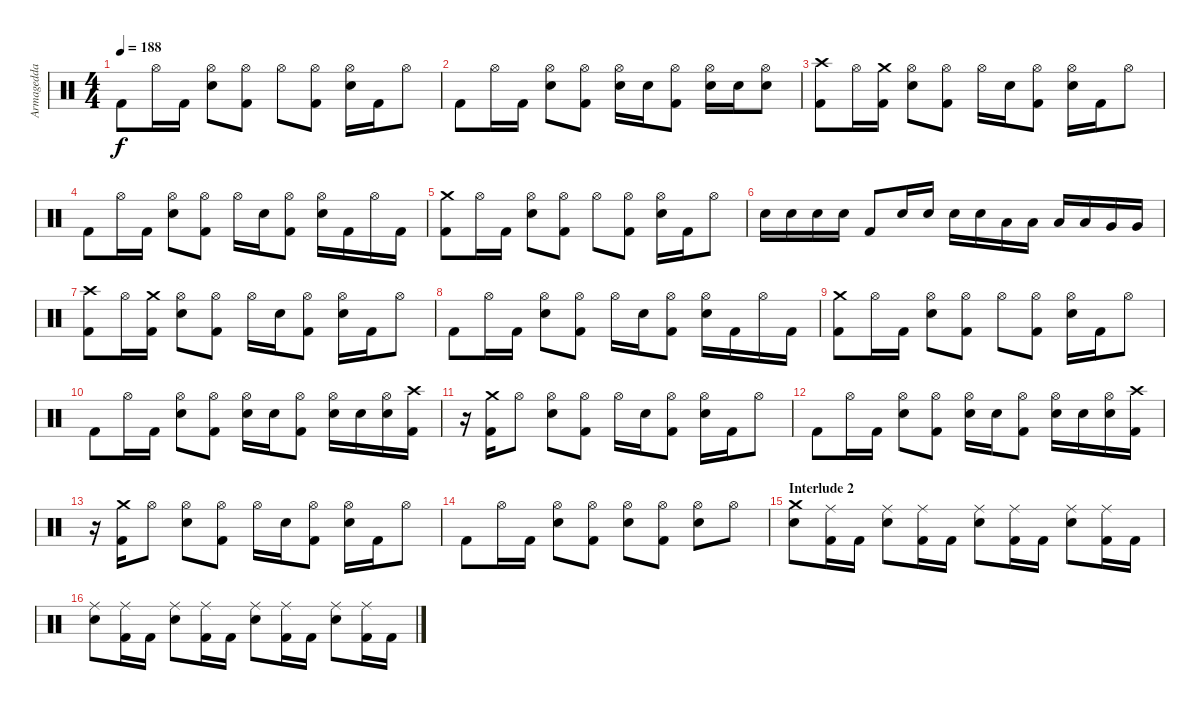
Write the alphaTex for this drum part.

\track ("Armagedda" "Armagedda") {instrument percussion}
\staff {score}
\articulation defaults
\ts (4 4)
\tempo 188
\clef neutral
\ks c "Kick (hit) 2".8{dy f} "Hi-Hat (open)".16 "Kick (hit) 2".16
("Hi-Hat (open)" "Electric Snare (hit)").8 ("Hi-Hat (open)" "Kick (hit) 2").8 "Hi-Hat (open)".8 ("Hi-Hat (open)" "Kick (hit) 2").8 ("Hi-Hat (open)" "Electric Snare (hit)").16 "Kick (hit) 2".16 "Hi-Hat (open)".8 |
"Kick (hit) 2".8 "Hi-Hat (open)".16 "Kick (hit) 2".16 ("Hi-Hat (open)" "Electric Snare (hit)").8 ("Hi-Hat (open)" "Kick (hit) 2").8 ("Hi-Hat (open)" "Electric Snare (hit)").16 "Electric Snare (hit)".16 ("Hi-Hat (open)" "Kick (hit) 2").8 ("Hi-Hat (open)" "Electric Snare (hit)").16 "Electric Snare (hit)".16 ("Hi-Hat (open)" "Electric Snare (hit)").8 |
("Crash high (hit)" "Kick (hit) 2").8 "Hi-Hat (open)".16 ("Crash medium (hit)" "Kick (hit) 2").16 ("Hi-Hat (open)" "Electric Snare (hit)").8 ("Hi-Hat (open)" "Kick (hit) 2").8 "Hi-Hat (open)".16 "Electric Snare (hit)".16 ("Hi-Hat (open)" "Kick (hit) 2").8 ("Hi-Hat (open)" "Electric Snare (hit)").16 "Kick (hit) 2".16 "Hi-Hat (open)".8 |
"Kick (hit) 2".8 "Hi-Hat (open)".16 "Kick (hit) 2".16 ("Hi-Hat (open)" "Electric Snare (hit)").8 ("Hi-Hat (open)" "Kick (hit) 2").8 "Hi-Hat (open)".16 "Electric Snare (hit)".16 ("Hi-Hat (open)" "Kick (hit) 2").8 ("Hi-Hat (open)" "Electric Snare (hit)").16 "Kick (hit) 2".16 "Hi-Hat (open)".16 "Kick (hit) 2".16 |
("Crash medium (hit)" "Kick (hit) 2").8 "Hi-Hat (open)".16 "Kick (hit) 2".16 ("Hi-Hat (open)" "Electric Snare (hit)").8 ("Hi-Hat (open)" "Kick (hit) 2").8 "Hi-Hat (open)".8 ("Hi-Hat (open)" "Kick (hit) 2").8 ("Hi-Hat (open)" "Electric Snare (hit)").16 "Kick (hit) 2".16 "Hi-Hat (open)".8 |
"Electric Snare (hit)".16 "Electric Snare (hit)".16 "Electric Snare (hit)".16 "Electric Snare (hit)".16 "Kick (hit) 2".8 "Electric Snare (hit)".16 "Electric Snare (hit)".16 "Electric Snare (hit)".16 "Electric Snare (hit)".16 "Low Tom (hit)".16 "Low Tom (hit)".16 "Low Tom (hit)".16 "Low Tom (hit)".16 "Very Low Tom (hit)".16 "Very Low Tom (hit)".16 |
("Crash high (hit)" "Kick (hit) 2").8 "Hi-Hat (open)".16 ("Crash medium (hit)" "Kick (hit) 2").16 ("Hi-Hat (open)" "Electric Snare (hit)").8 ("Hi-Hat (open)" "Kick (hit) 2").8 "Hi-Hat (open)".16 "Electric Snare (hit)".16 ("Hi-Hat (open)" "Kick (hit) 2").8 ("Hi-Hat (open)" "Electric Snare (hit)").16 "Kick (hit) 2".16 "Hi-Hat (open)".8 |
"Kick (hit) 2".8 "Hi-Hat (open)".16 "Kick (hit) 2".16 ("Hi-Hat (open)" "Electric Snare (hit)").8 ("Hi-Hat (open)" "Kick (hit) 2").8 "Hi-Hat (open)".16 "Electric Snare (hit)".16 ("Hi-Hat (open)" "Kick (hit) 2").8 ("Hi-Hat (open)" "Electric Snare (hit)").16 "Kick (hit) 2".16 "Hi-Hat (open)".16 "Kick (hit) 2".16 |
("Crash medium (hit)" "Kick (hit) 2").8 "Hi-Hat (open)".16 "Kick (hit) 2".16 ("Hi-Hat (open)" "Electric Snare (hit)").8 ("Hi-Hat (open)" "Kick (hit) 2").8 "Hi-Hat (open)".8 ("Hi-Hat (open)" "Kick (hit) 2").8 ("Hi-Hat (open)" "Electric Snare (hit)").16 "Kick (hit) 2".16 "Hi-Hat (open)".8 |
"Kick (hit) 2".8 "Hi-Hat (open)".16 "Kick (hit) 2".16 ("Hi-Hat (open)" "Electric Snare (hit)").8 ("Hi-Hat (open)" "Kick (hit) 2").8 ("Hi-Hat (open)" "Electric Snare (hit)").16 "Electric Snare (hit)".16 ("Hi-Hat (open)" "Kick (hit) 2").8 ("Hi-Hat (open)" "Electric Snare (hit)").16 "Electric Snare (hit)".16 ("Hi-Hat (open)" "Electric Snare (hit)").16 ("Crash high (hit)" "Kick (hit) 2").16 |
r.16 ("Crash medium (hit)" "Kick (hit) 2").16 "Hi-Hat (open)".8 ("Hi-Hat (open)" "Electric Snare (hit)").8 ("Hi-Hat (open)" "Kick (hit) 2").8 "Hi-Hat (open)".16 "Electric Snare (hit)".16 ("Hi-Hat (open)" "Kick (hit) 2").8 ("Hi-Hat (open)" "Electric Snare (hit)").16 "Kick (hit) 2".16 "Hi-Hat (open)".8 |
"Kick (hit) 2".8 "Hi-Hat (open)".16 "Kick (hit) 2".16 ("Hi-Hat (open)" "Electric Snare (hit)").8 ("Hi-Hat (open)" "Kick (hit) 2").8 ("Hi-Hat (open)" "Electric Snare (hit)").16 "Electric Snare (hit)".16 ("Hi-Hat (open)" "Kick (hit) 2").8 ("Hi-Hat (open)" "Electric Snare (hit)").16 "Electric Snare (hit)".16 ("Hi-Hat (open)" "Electric Snare (hit)").16 ("Crash high (hit)" "Kick (hit) 2").16 |
r.16 ("Crash medium (hit)" "Kick (hit) 2").16 "Hi-Hat (open)".8 ("Hi-Hat (open)" "Electric Snare (hit)").8 ("Hi-Hat (open)" "Kick (hit) 2").8 "Hi-Hat (open)".16 "Electric Snare (hit)".16 ("Hi-Hat (open)" "Kick (hit) 2").8 ("Hi-Hat (open)" "Electric Snare (hit)").16 "Kick (hit) 2".16 "Hi-Hat (open)".8 |
"Kick (hit) 2".8 "Hi-Hat (open)".16 "Kick (hit) 2".16 ("Hi-Hat (open)" "Electric Snare (hit)").8 ("Hi-Hat (open)" "Kick (hit) 2").8 ("Hi-Hat (open)" "Electric Snare (hit)").8 ("Hi-Hat (open)" "Kick (hit) 2").8 ("Hi-Hat (open)" "Electric Snare (hit)").8 "Hi-Hat (open)".8 |
\section ("" "Interlude 2")
("Crash medium (hit)" "Electric Snare (hit)").8 ("Ride (middle)" "Kick (hit) 2").16 "Kick (hit) 2".16 ("Ride (middle)" "Electric Snare (hit)").8 ("Ride (middle)" "Kick (hit) 2").16 "Kick (hit) 2".16 ("Ride (middle)" "Electric Snare (hit)").8 ("Ride (middle)" "Kick (hit) 2").16 "Kick (hit) 2".16 ("Ride (middle)" "Electric Snare (hit)").8 ("Ride (middle)" "Kick (hit) 2").16 "Kick (hit) 2".16 |
("Ride (middle)" "Electric Snare (hit)").8 ("Ride (middle)" "Kick (hit) 2").16 "Kick (hit) 2".16 ("Ride (middle)" "Electric Snare (hit)").8 ("Ride (middle)" "Kick (hit) 2").16 "Kick (hit) 2".16 ("Ride (middle)" "Electric Snare (hit)").8 ("Ride (middle)" "Kick (hit) 2").16 "Kick (hit) 2".16 ("Ride (middle)" "Electric Snare (hit)").8 ("Ride (middle)" "Kick (hit) 2").16 "Kick (hit) 2".16
